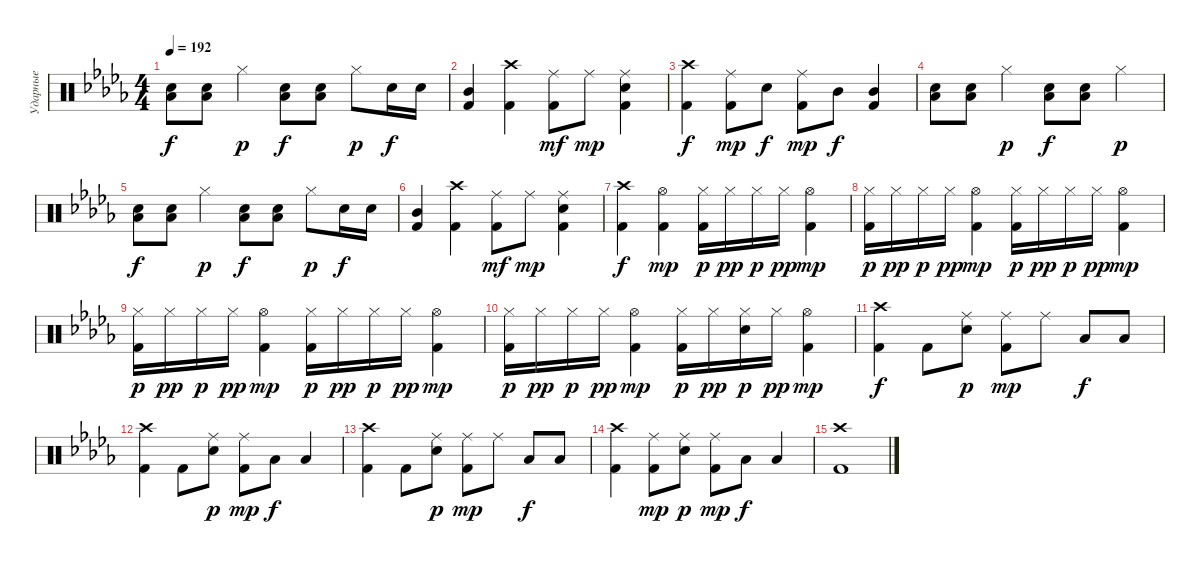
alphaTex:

\track ("Ударные" "Ударные") {instrument percussion}
\staff {score}
\articulation defaults
\ts (4 4)
\tempo 192
\clef neutral
\ks bbminor
("Electric Snare (hit)" "Low Tom (hit)").8{dy f} ("Electric Snare (hit)" "Low Tom (hit)").8 "Hi-Hat (closed)".4{dy p} ("Electric Snare (hit)" "Low Tom (hit)").8{dy f} ("Electric Snare (hit)" "Low Tom (hit)").8 "Hi-Hat (closed)".8{dy p} "Electric Snare (hit)".16{dy f} "Electric Snare (hit)".16 |
("Mid Tom (hit)" "Kick (hit) 2").4 ("Crash high (hit)" "Kick (hit) 2").4 ("Ride (middle)" "Kick (hit) 2").8{dy mf} "Ride (middle)".8{dy mp} ("Ride (middle)" "Electric Snare (hit)" "Kick (hit) 2").4 |
("Crash high (hit)" "Kick (hit) 2").4{dy f} ("Ride (middle)" "Kick (hit) 2").8{dy mp} "Electric Snare (hit)".8{dy f} ("Ride (middle)" "Kick (hit) 2").8{dy mp} "Mid Tom (hit)".8{dy f} ("Mid Tom (hit)" "Kick (hit) 2").4 |
("Electric Snare (hit)" "Low Tom (hit)").8 ("Electric Snare (hit)" "Low Tom (hit)").8 "Hi-Hat (closed)".4{dy p} ("Electric Snare (hit)" "Low Tom (hit)").8{dy f} ("Electric Snare (hit)" "Low Tom (hit)").8 "Hi-Hat (closed)".4{dy p} |
("Electric Snare (hit)" "Low Tom (hit)").8{dy f} ("Electric Snare (hit)" "Low Tom (hit)").8 "Hi-Hat (closed)".4{dy p} ("Electric Snare (hit)" "Low Tom (hit)").8{dy f} ("Electric Snare (hit)" "Low Tom (hit)").8 "Hi-Hat (closed)".8{dy p} "Electric Snare (hit)".16{dy f} "Electric Snare (hit)".16 |
("Mid Tom (hit)" "Kick (hit) 2").4 ("Crash high (hit)" "Kick (hit) 2").4 ("Ride (middle)" "Kick (hit) 2").8{dy mf} "Ride (middle)".8{dy mp} ("Ride (middle)" "Electric Snare (hit)" "Kick (hit) 2").4 |
("Crash high (hit)" "Kick (hit) 2").4{dy f} ("Hi-Hat (open)" "Kick (hit) 2").4{dy mp} ("Hi-Hat (closed)" "Kick (hit) 2").16{dy p} "Hi-Hat (closed)".16{dy pp} "Hi-Hat (closed)".16{dy p} "Hi-Hat (closed)".16{dy pp} ("Hi-Hat (open)" "Kick (hit) 2").4{dy mp} |
("Hi-Hat (closed)" "Kick (hit) 2").16{dy p} "Hi-Hat (closed)".16{dy pp} "Hi-Hat (closed)".16{dy p} "Hi-Hat (closed)".16{dy pp} ("Hi-Hat (open)" "Kick (hit) 2").4{dy mp} ("Hi-Hat (closed)" "Kick (hit) 2").16{dy p} "Hi-Hat (closed)".16{dy pp} "Hi-Hat (closed)".16{dy p} "Hi-Hat (closed)".16{dy pp} ("Hi-Hat (open)" "Kick (hit) 2").4{dy mp} |
("Hi-Hat (closed)" "Kick (hit) 2").16{dy p} "Hi-Hat (closed)".16{dy pp} "Hi-Hat (closed)".16{dy p} "Hi-Hat (closed)".16{dy pp} ("Hi-Hat (open)" "Kick (hit) 2").4{dy mp} ("Hi-Hat (closed)" "Kick (hit) 2").16{dy p} "Hi-Hat (closed)".16{dy pp} "Hi-Hat (closed)".16{dy p} "Hi-Hat (closed)".16{dy pp} ("Hi-Hat (open)" "Kick (hit) 2").4{dy mp} |
("Hi-Hat (closed)" "Kick (hit) 2").16{dy p} "Hi-Hat (closed)".16{dy pp} "Hi-Hat (closed)".16{dy p} "Hi-Hat (closed)".16{dy pp} ("Hi-Hat (open)" "Kick (hit) 2").4{dy mp} ("Hi-Hat (closed)" "Kick (hit) 2").16{dy p} "Hi-Hat (closed)".16{dy pp} ("Hi-Hat (closed)" "Electric Snare (hit)").16{dy p} "Hi-Hat (closed)".16{dy pp} ("Hi-Hat (open)" "Kick (hit) 2").4{dy mp} |
("Crash high (hit)" "Kick (hit) 2").4{dy f} "Kick (hit) 2".8 ("Ride (middle)" "Electric Snare (hit)").8{dy p} ("Ride (middle)" "Kick (hit) 2").8{dy mp} "Ride (middle)".8 "Low Tom (hit)".8{dy f} "Low Tom (hit)".8 |
("Crash high (hit)" "Kick (hit) 2").4 "Kick (hit) 2".8 ("Ride (middle)" "Electric Snare (hit)").8{dy p} ("Ride (middle)" "Kick (hit) 2").8{dy mp} "Low Tom (hit)".8{dy f} "Low Tom (hit)".4 |
("Crash high (hit)" "Kick (hit) 2").4 "Kick (hit) 2".8 ("Ride (middle)" "Electric Snare (hit)").8{dy p} ("Ride (middle)" "Kick (hit) 2").8{dy mp} "Ride (middle)".8 "Low Tom (hit)".8{dy f} "Low Tom (hit)".8 |
("Crash high (hit)" "Kick (hit) 2").4 ("Ride (middle)" "Kick (hit) 2").8{dy mp} ("Ride (middle)" "Electric Snare (hit)").8{dy p} ("Ride (middle)" "Kick (hit) 2").8{dy mp} "Low Tom (hit)".8{dy f} "Low Tom (hit)".4 |
("Crash high (hit)" "Kick (hit) 2").1
